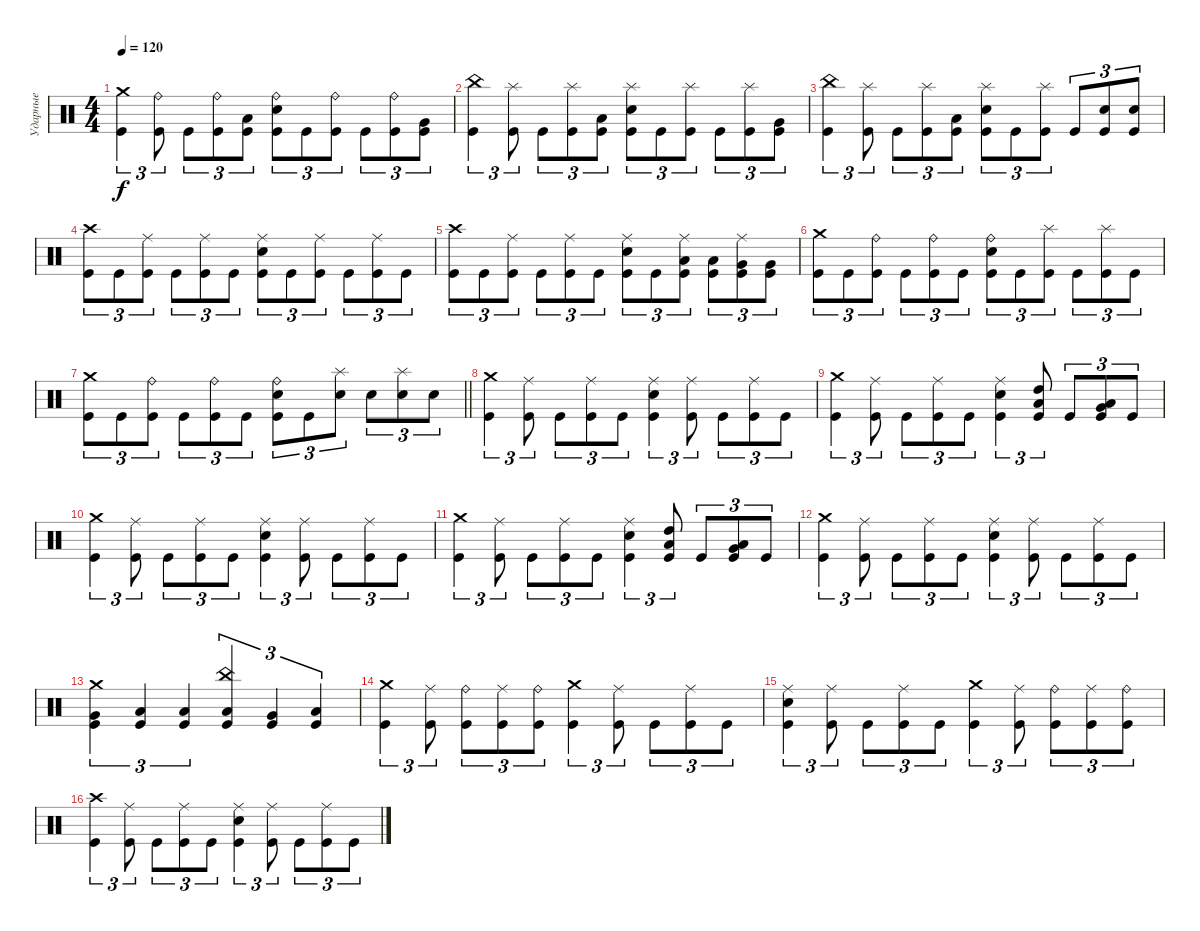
\track ("Ударные" "Ударные") {instrument percussion}
\staff {score}
\articulation defaults
\ts (4 4)
\tempo 120
\clef neutral
\ks c
("Crash medium (hit)" "Kick (hit)").4{tu (3 2) dy f} ("Ride (bell)" "Kick (hit)").8{tu (3 2)} "Kick (hit)".8{tu (3 2)} ("Ride (bell)" "Kick (hit)").8{tu (3 2)} ("Low Floor Tom (hit)" "Kick (hit)").8{tu (3 2)} ("Ride (bell)" "Electric Snare (hit)" "Kick (hit)").8{tu (3 2)} "Kick (hit)".8{tu (3 2)} ("Ride (bell)" "Kick (hit)").8{tu (3 2)} "Kick (hit)".8{tu (3 2)} ("Ride (bell)" "Kick (hit)").8{tu (3 2)} ("Very Low Tom (hit)" "Kick (hit)").8{tu (3 2)} |
("China (hit)" "Kick (hit)").4{tu (3 2)} ("Splash (hit)" "Kick (hit)").8{tu (3 2)} "Kick (hit)".8{tu (3 2)} ("Splash (hit)" "Kick (hit)").8{tu (3 2)} ("Low Floor Tom (hit)" "Kick (hit)").8{tu (3 2)} ("Splash (hit)" "Electric Snare (hit)" "Kick (hit)").8{tu (3 2)} "Kick (hit)".8{tu (3 2)} ("Splash (hit)" "Kick (hit)").8{tu (3 2)} "Kick (hit)".8{tu (3 2)} ("Splash (hit)" "Kick (hit)").8{tu (3 2)} ("Very Low Tom (hit)" "Kick (hit)").8{tu (3 2)} |
("China (hit)" "Kick (hit)").4{tu (3 2)} ("Splash (hit)" "Kick (hit)").8{tu (3 2)} "Kick (hit)".8{tu (3 2)} ("Splash (hit)" "Kick (hit)").8{tu (3 2)} ("Low Floor Tom (hit)" "Kick (hit)").8{tu (3 2)} ("Splash (hit)" "Electric Snare (hit)" "Kick (hit)").8{tu (3 2)} "Kick (hit)".8{tu (3 2)} ("Splash (hit)" "Kick (hit)").8{tu (3 2)} "Kick (hit)".8{tu (3 2)} ("Electric Snare (hit)" "Kick (hit)").8{tu (3 2)} ("Electric Snare (hit)" "Kick (hit)").8{tu (3 2)} |
("Crash high (hit)" "Kick (hit)").8{tu (3 2)} "Kick (hit)".8{tu (3 2)} ("Ride (middle)" "Kick (hit)").8{tu (3 2)} "Kick (hit)".8{tu (3 2)} ("Ride (middle)" "Kick (hit)").8{tu (3 2)} "Kick (hit)".8{tu (3 2)} ("Ride (middle)" "Kick (hit)" "Electric Snare (hit)").8{tu (3 2)} "Kick (hit)".8{tu (3 2)} ("Ride (middle)" "Kick (hit)").8{tu (3 2)} "Kick (hit)".8{tu (3 2)} ("Ride (middle)" "Kick (hit)").8{tu (3 2)} "Kick (hit)".8{tu (3 2)} |
("Crash high (hit)" "Kick (hit)").8{tu (3 2)} "Kick (hit)".8{tu (3 2)} ("Ride (middle)" "Kick (hit)").8{tu (3 2)} "Kick (hit)".8{tu (3 2)} ("Ride (middle)" "Kick (hit)").8{tu (3 2)} "Kick (hit)".8{tu (3 2)} ("Ride (middle)" "Kick (hit)" "Electric Snare (hit)").8{tu (3 2)} "Kick (hit)".8{tu (3 2)} ("Low Tom (hit)" "Kick (hit)" "Ride (middle)").8{tu (3 2)} ("Low Tom (hit)" "Kick (hit)").8{tu (3 2)} ("Very Low Tom (hit)" "Kick (hit)" "Ride (middle)").8{tu (3 2)} ("Very Low Tom (hit)" "Kick (hit)").8{tu (3 2)} |
("Crash medium (hit)" "Kick (hit)").8{tu (3 2)} "Kick (hit)".8{tu (3 2)} ("Ride (bell)" "Kick (hit)").8{tu (3 2)} "Kick (hit)".8{tu (3 2)} ("Ride (bell)" "Kick (hit)").8{tu (3 2)} "Kick (hit)".8{tu (3 2)} ("Ride (bell)" "Kick (hit)" "Electric Snare (hit)").8{tu (3 2)} "Kick (hit)".8{tu (3 2)} ("Splash (hit)" "Kick (hit)").8{tu (3 2)} "Kick (hit)".8{tu (3 2)} ("Splash (hit)" "Kick (hit)").8{tu (3 2)} "Kick (hit)".8{tu (3 2)} |
\barLineRight lightlight
("Crash medium (hit)" "Kick (hit)").8{tu (3 2)} "Kick (hit)".8{tu (3 2)} ("Ride (bell)" "Kick (hit)").8{tu (3 2)} "Kick (hit)".8{tu (3 2)} ("Ride (bell)" "Kick (hit)").8{tu (3 2)} "Kick (hit)".8{tu (3 2)} ("Ride (bell)" "Kick (hit)" "Electric Snare (hit)").8{tu (3 2)} "Kick (hit)".8{tu (3 2)} ("Splash (hit)" "Electric Snare (hit)").8{tu (3 2)} "Electric Snare (hit)".8{tu (3 2)} ("Splash (hit)" "Electric Snare (hit)").8{tu (3 2)} "Electric Snare (hit)".8{tu (3 2)} |
\section ("" " ")
("Crash medium (hit)" "Kick (hit)").4{tu (3 2)} ("Ride (middle)" "Kick (hit)").8{tu (3 2)} "Kick (hit)".8{tu (3 2)} ("Ride (middle)" "Kick (hit)").8{tu (3 2)} "Kick (hit)".8{tu (3 2)} ("Ride (middle)" "Electric Snare (hit)" "Kick (hit)").4{tu (3 2)} ("Ride (middle)" "Kick (hit)").8{tu (3 2)} "Kick (hit)".8{tu (3 2)} ("Ride (middle)" "Kick (hit)").8{tu (3 2)} "Kick (hit)".8{tu (3 2)} |
("Crash medium (hit)" "Kick (hit)").4{tu (3 2)} ("Ride (middle)" "Kick (hit)").8{tu (3 2)} "Kick (hit)".8{tu (3 2)} ("Ride (middle)" "Kick (hit)").8{tu (3 2)} "Kick (hit)".8{tu (3 2)} ("Ride (middle)" "Electric Snare (hit)" "Kick (hit)").4{tu (3 2)} ("Low Tom (hit)" "High Tom (hit)" "Kick (hit)").8{tu (3 2)} "Kick (hit)".8{tu (3 2)} ("Very Low Tom (hit)" "Low Tom (hit)" "Kick (hit)").8{tu (3 2)} "Kick (hit)".8{tu (3 2)} |
("Crash medium (hit)" "Kick (hit)").4{tu (3 2)} ("Ride (middle)" "Kick (hit)").8{tu (3 2)} "Kick (hit)".8{tu (3 2)} ("Ride (middle)" "Kick (hit)").8{tu (3 2)} "Kick (hit)".8{tu (3 2)} ("Ride (middle)" "Electric Snare (hit)" "Kick (hit)").4{tu (3 2)} ("Ride (middle)" "Kick (hit)").8{tu (3 2)} "Kick (hit)".8{tu (3 2)} ("Ride (middle)" "Kick (hit)").8{tu (3 2)} "Kick (hit)".8{tu (3 2)} |
("Crash medium (hit)" "Kick (hit)").4{tu (3 2)} ("Ride (middle)" "Kick (hit)").8{tu (3 2)} "Kick (hit)".8{tu (3 2)} ("Ride (middle)" "Kick (hit)").8{tu (3 2)} "Kick (hit)".8{tu (3 2)} ("Ride (middle)" "Electric Snare (hit)" "Kick (hit)").4{tu (3 2)} ("Low Tom (hit)" "High Tom (hit)" "Kick (hit)").8{tu (3 2)} "Kick (hit)".8{tu (3 2)} ("Very Low Tom (hit)" "Low Tom (hit)" "Kick (hit)").8{tu (3 2)} "Kick (hit)".8{tu (3 2)} |
("Crash medium (hit)" "Kick (hit)").4{tu (3 2)} ("Ride (middle)" "Kick (hit)").8{tu (3 2)} "Kick (hit)".8{tu (3 2)} ("Ride (middle)" "Kick (hit)").8{tu (3 2)} "Kick (hit)".8{tu (3 2)} ("Ride (middle)" "Electric Snare (hit)" "Kick (hit)").4{tu (3 2)} ("Ride (middle)" "Kick (hit)").8{tu (3 2)} "Kick (hit)".8{tu (3 2)} ("Ride (middle)" "Kick (hit)").8{tu (3 2)} "Kick (hit)".8{tu (3 2)} |
("Very Low Tom (hit)" "Crash medium (hit)" "Kick (hit)").4{tu (3 2)} ("Low Floor Tom (hit)" "Kick (hit)").4{tu (3 2)} ("Low Floor Tom (hit)" "Kick (hit)").4{tu (3 2)} ("Low Tom (hit)" "China (hit)" "Kick (hit)").4{tu (3 2)} ("Very Low Tom (hit)" "Kick (hit)").4{tu (3 2)} ("Low Floor Tom (hit)" "Kick (hit)").4{tu (3 2)} |
("Kick (hit)" "Crash medium (hit)").4{tu (3 2)} ("Kick (hit)" "Ride (middle)").8{tu (3 2)} ("Kick (hit)" "Ride (bell)").8{tu (3 2)} ("Kick (hit)" "Ride (middle)").8{tu (3 2)} ("Kick (hit)" "Ride (bell)").8{tu (3 2)} ("Crash medium (hit)" "Kick (hit)").4{tu (3 2)} ("Ride (middle)" "Kick (hit)").8{tu (3 2)} "Kick (hit)".8{tu (3 2)} ("Ride (middle)" "Kick (hit)").8{tu (3 2)} "Kick (hit)".8{tu (3 2)} |
("Ride (middle)" "Electric Snare (hit)" "Kick (hit)").4{tu (3 2)} ("Ride (middle)" "Kick (hit)").8{tu (3 2)} "Kick (hit)".8{tu (3 2)} ("Ride (middle)" "Kick (hit)").8{tu (3 2)} "Kick (hit)".8{tu (3 2)} ("Kick (hit)" "Crash medium (hit)").4{tu (3 2)} ("Kick (hit)" "Ride (middle)").8{tu (3 2)} ("Kick (hit)" "Ride (bell)").8{tu (3 2)} ("Kick (hit)" "Ride (middle)").8{tu (3 2)} ("Kick (hit)" "Ride (bell)").8{tu (3 2)} |
("Crash high (hit)" "Kick (hit)").4{tu (3 2)} ("Ride (middle)" "Kick (hit)").8{tu (3 2)} "Kick (hit)".8{tu (3 2)} ("Ride (middle)" "Kick (hit)").8{tu (3 2)} "Kick (hit)".8{tu (3 2)} ("Ride (middle)" "Electric Snare (hit)" "Kick (hit)").4{tu (3 2)} ("Ride (middle)" "Kick (hit)").8{tu (3 2)} "Kick (hit)".8{tu (3 2)} ("Ride (middle)" "Kick (hit)").8{tu (3 2)} "Kick (hit)".8{tu (3 2)}
